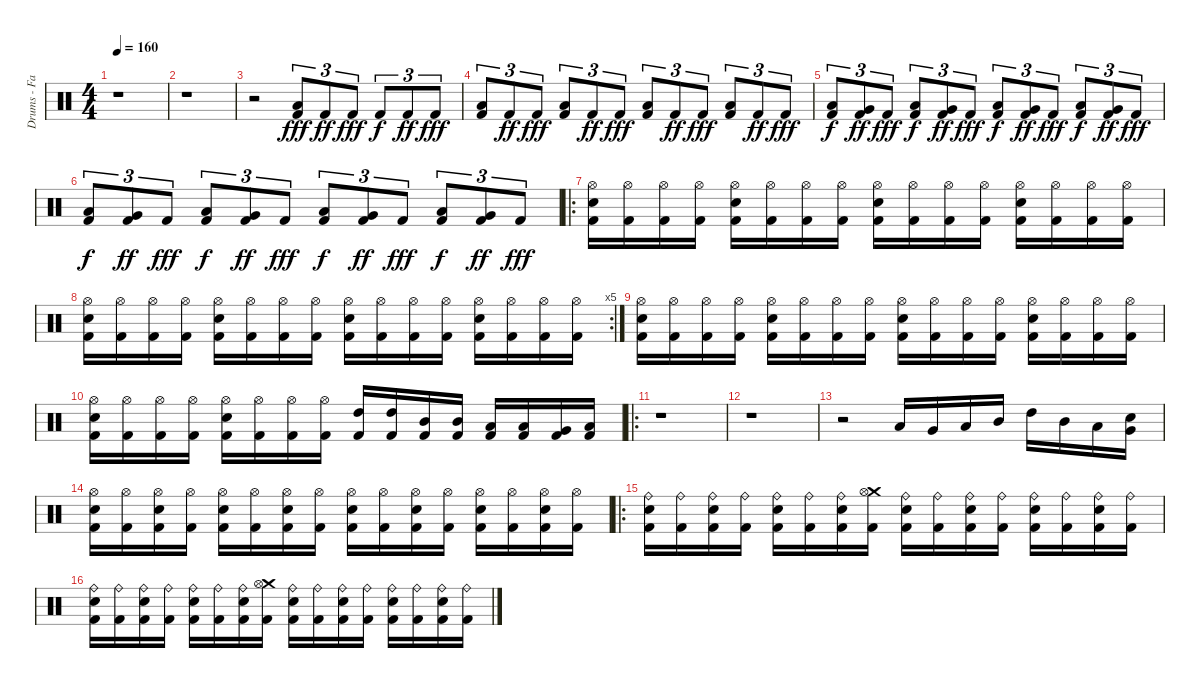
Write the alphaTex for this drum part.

\track ("Drums - Faust" "Drums - Fa") {instrument percussion}
\staff {score}
\articulation defaults
\ts (4 4)
\tempo 160
\clef neutral
\ks c
r.1{dy fff} |
r.1 |
r.2 ("Low Floor Tom (hit)" "Kick (hit) 2").8{tu (3 2)} "Kick (hit) 2".8{tu (3 2) dy ff} "Kick (hit) 2".8{tu (3 2) dy fff} "Kick (hit) 2".8{tu (3 2) dy f} "Kick (hit) 2".8{tu (3 2) dy ff} "Kick (hit) 2".8{tu (3 2) dy fff} |
("Low Floor Tom (hit)" "Kick (hit) 2").8{tu (3 2)} "Kick (hit) 2".8{tu (3 2) dy ff} "Kick (hit) 2".8{tu (3 2) dy fff} ("Low Floor Tom (hit)" "Kick (hit) 2").8{tu (3 2)} "Kick (hit) 2".8{tu (3 2) dy ff} "Kick (hit) 2".8{tu (3 2) dy fff} ("Low Floor Tom (hit)" "Kick (hit) 2").8{tu (3 2)} "Kick (hit) 2".8{tu (3 2) dy ff} "Kick (hit) 2".8{tu (3 2) dy fff} ("Low Floor Tom (hit)" "Kick (hit) 2").8{tu (3 2)} "Kick (hit) 2".8{tu (3 2) dy ff} "Kick (hit) 2".8{tu (3 2) dy fff} |
("Low Floor Tom (hit)" "Kick (hit) 2").8{tu (3 2) dy f} ("Very Low Tom (hit)" "Kick (hit) 2").8{tu (3 2) dy ff} "Kick (hit) 2".8{tu (3 2) dy fff} ("Low Floor Tom (hit)" "Kick (hit) 2").8{tu (3 2) dy f} ("Very Low Tom (hit)" "Kick (hit) 2").8{tu (3 2) dy ff} "Kick (hit) 2".8{tu (3 2) dy fff} ("Low Floor Tom (hit)" "Kick (hit) 2").8{tu (3 2) dy f} ("Very Low Tom (hit)" "Kick (hit) 2").8{tu (3 2) dy ff} "Kick (hit) 2".8{tu (3 2) dy fff} ("Low Floor Tom (hit)" "Kick (hit) 2").8{tu (3 2) dy f} ("Very Low Tom (hit)" "Kick (hit) 2").8{tu (3 2) dy ff} "Kick (hit) 2".8{tu (3 2) dy fff} |
("Low Floor Tom (hit)" "Kick (hit) 2").8{tu (3 2) dy f} ("Very Low Tom (hit)" "Kick (hit) 2").8{tu (3 2) dy ff} "Kick (hit) 2".8{tu (3 2) dy fff} ("Low Floor Tom (hit)" "Kick (hit) 2").8{tu (3 2) dy f} ("Very Low Tom (hit)" "Kick (hit) 2").8{tu (3 2) dy ff} "Kick (hit) 2".8{tu (3 2) dy fff} ("Low Floor Tom (hit)" "Kick (hit) 2").8{tu (3 2) dy f} ("Very Low Tom (hit)" "Kick (hit) 2").8{tu (3 2) dy ff} "Kick (hit) 2".8{tu (3 2) dy fff} ("Low Floor Tom (hit)" "Kick (hit) 2").8{tu (3 2) dy f} ("Very Low Tom (hit)" "Kick (hit) 2").8{tu (3 2) dy ff} "Kick (hit) 2".8{tu (3 2) dy fff} |
\ro
("Hi-Hat (open)" "Electric Snare (hit)" "Kick (hit) 2").16 ("Hi-Hat (open)" "Kick (hit) 2").16 ("Hi-Hat (open)" "Kick (hit) 2").16 ("Hi-Hat (open)" "Kick (hit) 2").16 ("Hi-Hat (open)" "Electric Snare (hit)" "Kick (hit) 2").16 ("Hi-Hat (open)" "Kick (hit) 2").16 ("Hi-Hat (open)" "Kick (hit) 2").16 ("Hi-Hat (open)" "Kick (hit) 2").16 ("Hi-Hat (open)" "Electric Snare (hit)" "Kick (hit) 2").16 ("Hi-Hat (open)" "Kick (hit) 2").16 ("Hi-Hat (open)" "Kick (hit) 2").16 ("Hi-Hat (open)" "Kick (hit) 2").16 ("Hi-Hat (open)" "Electric Snare (hit)" "Kick (hit) 2").16 ("Hi-Hat (open)" "Kick (hit) 2").16 ("Hi-Hat (open)" "Kick (hit) 2").16 ("Hi-Hat (open)" "Kick (hit) 2").16 |
\rc 5
("Hi-Hat (open)" "Electric Snare (hit)" "Kick (hit) 2").16 ("Hi-Hat (open)" "Kick (hit) 2").16 ("Hi-Hat (open)" "Kick (hit) 2").16 ("Hi-Hat (open)" "Kick (hit) 2").16 ("Hi-Hat (open)" "Electric Snare (hit)" "Kick (hit) 2").16 ("Hi-Hat (open)" "Kick (hit) 2").16 ("Hi-Hat (open)" "Kick (hit) 2").16 ("Hi-Hat (open)" "Kick (hit) 2").16 ("Hi-Hat (open)" "Electric Snare (hit)" "Kick (hit) 2").16 ("Hi-Hat (open)" "Kick (hit) 2").16 ("Hi-Hat (open)" "Kick (hit) 2").16 ("Hi-Hat (open)" "Kick (hit) 2").16 ("Hi-Hat (open)" "Electric Snare (hit)" "Kick (hit) 2").16 ("Hi-Hat (open)" "Kick (hit) 2").16 ("Hi-Hat (open)" "Kick (hit) 2").16 ("Hi-Hat (open)" "Kick (hit) 2").16 |
("Hi-Hat (open)" "Electric Snare (hit)" "Kick (hit) 2").16 ("Hi-Hat (open)" "Kick (hit) 2").16 ("Hi-Hat (open)" "Kick (hit) 2").16 ("Hi-Hat (open)" "Kick (hit) 2").16 ("Hi-Hat (open)" "Electric Snare (hit)" "Kick (hit) 2").16 ("Hi-Hat (open)" "Kick (hit) 2").16 ("Hi-Hat (open)" "Kick (hit) 2").16 ("Hi-Hat (open)" "Kick (hit) 2").16 ("Hi-Hat (open)" "Electric Snare (hit)" "Kick (hit) 2").16 ("Hi-Hat (open)" "Kick (hit) 2").16 ("Hi-Hat (open)" "Kick (hit) 2").16 ("Hi-Hat (open)" "Kick (hit) 2").16 ("Hi-Hat (open)" "Electric Snare (hit)" "Kick (hit) 2").16 ("Hi-Hat (open)" "Kick (hit) 2").16 ("Hi-Hat (open)" "Kick (hit) 2").16 ("Hi-Hat (open)" "Kick (hit) 2").16 |
("Hi-Hat (open)" "Electric Snare (hit)" "Kick (hit) 2").16 ("Hi-Hat (open)" "Kick (hit) 2").16 ("Hi-Hat (open)" "Kick (hit) 2").16 ("Hi-Hat (open)" "Kick (hit) 2").16 ("Hi-Hat (open)" "Electric Snare (hit)" "Kick (hit) 2").16 ("Hi-Hat (open)" "Kick (hit) 2").16 ("Hi-Hat (open)" "Kick (hit) 2").16 ("Hi-Hat (open)" "Kick (hit) 2").16 ("High Tom (hit)" "Kick (hit) 2").16 ("High Tom (hit)" "Kick (hit) 2").16 ("Mid Tom (hit)" "Kick (hit) 2").16 ("Mid Tom (hit)" "Kick (hit) 2").16 ("Low Tom (hit)" "Kick (hit) 2").16 ("Low Tom (hit)" "Kick (hit) 2").16 ("Very Low Tom (hit)" "Kick (hit) 2").16 ("Low Floor Tom (hit)" "Kick (hit) 2").16 |
\ro
r.1 |
r.1 |
r.2 "Low Floor Tom (hit)".16 "Very Low Tom (hit)".16 "Low Tom (hit)".16 "Mid Tom (hit)".16 "High Tom (hit)".16 "Mid Tom (hit)".16 "Low Tom (hit)".16 ("Very Low Tom (hit)" "Electric Snare (hit)").16 |
("Hi-Hat (open)" "Electric Snare (hit)" "Kick (hit) 2").16 ("Hi-Hat (open)" "Kick (hit) 2").16 ("Hi-Hat (open)" "Electric Snare (hit)" "Kick (hit) 2").16 ("Hi-Hat (open)" "Kick (hit) 2").16 ("Hi-Hat (open)" "Electric Snare (hit)" "Kick (hit) 2").16 ("Hi-Hat (open)" "Kick (hit) 2").16 ("Hi-Hat (open)" "Electric Snare (hit)" "Kick (hit) 2").16 ("Hi-Hat (open)" "Kick (hit) 2").16 ("Hi-Hat (open)" "Electric Snare (hit)" "Kick (hit) 2").16 ("Hi-Hat (open)" "Kick (hit) 2").16 ("Hi-Hat (open)" "Electric Snare (hit)" "Kick (hit) 2").16 ("Hi-Hat (open)" "Kick (hit) 2").16 ("Hi-Hat (open)" "Electric Snare (hit)" "Kick (hit) 2").16 ("Hi-Hat (open)" "Kick (hit) 2").16 ("Hi-Hat (open)" "Electric Snare (hit)" "Kick (hit) 2").16 ("Hi-Hat (open)" "Kick (hit) 2").16 |
\ro
("Ride (bell)" "Electric Snare (hit)" "Kick (hit) 2").16 ("Ride (bell)" "Kick (hit) 2").16 ("Ride (bell)" "Electric Snare (hit)" "Kick (hit) 2").16 ("Ride (bell)" "Kick (hit) 2").16 ("Ride (bell)" "Electric Snare (hit)" "Kick (hit) 2").16 ("Ride (bell)" "Kick (hit) 2").16 ("Ride (bell)" "Electric Snare (hit)" "Kick (hit) 2").16 ("Crash medium (hit)" "Hi-Hat (open)" "Kick (hit) 2").16 ("Ride (bell)" "Electric Snare (hit)" "Kick (hit) 2").16 ("Ride (bell)" "Kick (hit) 2").16 ("Ride (bell)" "Electric Snare (hit)" "Kick (hit) 2").16 ("Ride (bell)" "Kick (hit) 2").16 ("Ride (bell)" "Electric Snare (hit)" "Kick (hit) 2").16 ("Ride (bell)" "Kick (hit) 2").16 ("Ride (bell)" "Electric Snare (hit)" "Kick (hit) 2").16 ("Ride (bell)" "Kick (hit) 2").16 |
("Ride (bell)" "Electric Snare (hit)" "Kick (hit) 2").16 ("Ride (bell)" "Kick (hit) 2").16 ("Ride (bell)" "Electric Snare (hit)" "Kick (hit) 2").16 ("Ride (bell)" "Kick (hit) 2").16 ("Ride (bell)" "Electric Snare (hit)" "Kick (hit) 2").16 ("Ride (bell)" "Kick (hit) 2").16 ("Ride (bell)" "Electric Snare (hit)" "Kick (hit) 2").16 ("Crash medium (hit)" "Hi-Hat (open)" "Kick (hit) 2").16 ("Ride (bell)" "Electric Snare (hit)" "Kick (hit) 2").16 ("Ride (bell)" "Kick (hit) 2").16 ("Ride (bell)" "Electric Snare (hit)" "Kick (hit) 2").16 ("Ride (bell)" "Kick (hit) 2").16 ("Ride (bell)" "Electric Snare (hit)" "Kick (hit) 2").16 ("Ride (bell)" "Kick (hit) 2").16 ("Ride (bell)" "Electric Snare (hit)" "Kick (hit) 2").16 ("Ride (bell)" "Kick (hit) 2").16
